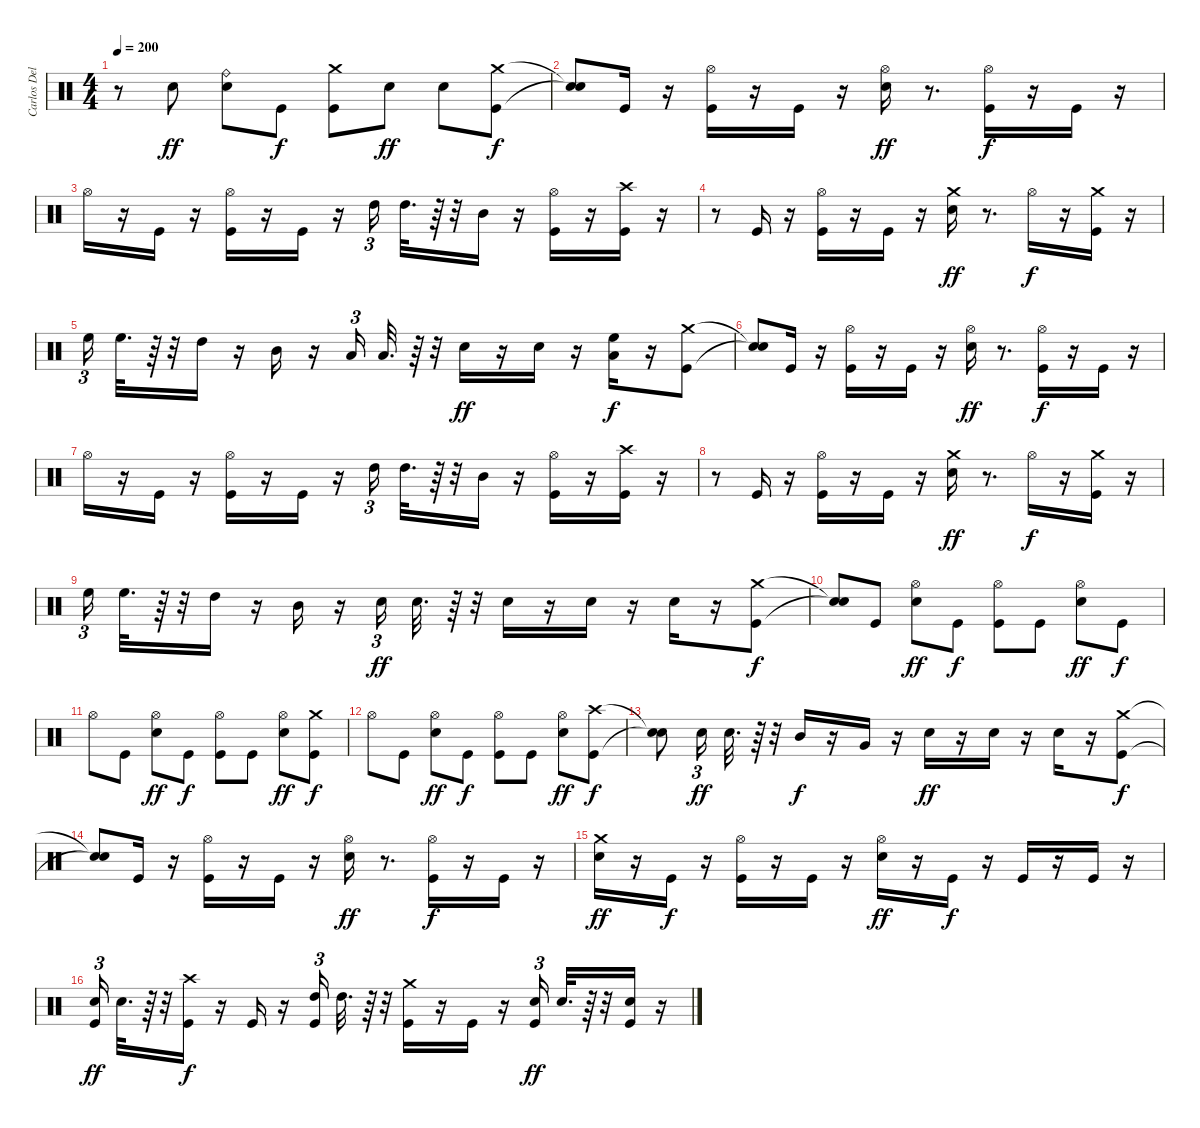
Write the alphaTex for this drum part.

\track ("Carlos Delgado" "Carlos Del") {instrument percussion}
\staff {score}
\articulation defaults
\ts (4 4)
\tempo 200
\clef neutral
\ks c
r.8{dy f} "Electric Snare (hit)".8{dy ff} ("Ride (bell)" "Electric Snare (hit)").8 "Kick (hit)".8{dy f} ("Crash medium (hit)" "Kick (hit)").8 "Electric Snare (hit)".8{dy ff} "Electric Snare (hit)".8 ("Crash medium (hit)" "Kick (hit)").8{dy f} |
("Snare (hit)"{t} "Snare (hit)"{t}).8 "Kick (hit)".16 r.16 ("Hi-Hat (open)" "Kick (hit)").16 r.16 "Kick (hit)".16 r.16 ("Hi-Hat (open)" "Electric Snare (hit)").16{dy ff} r.8{d} ("Kick (hit)" "Hi-Hat (open)").16{dy f} r.16 "Kick (hit)".16 r.16 |
"Hi-Hat (open)".16 r.16 "Kick (hit)".16 r.16 ("Hi-Hat (open)" "Kick (hit)").16 r.16 "Kick (hit)".16 r.16 "High Tom (hit)".16{tu (3 2)} "High Tom (hit)".32{d} r.64 r.32 "Mid Tom (hit)".16 r.16 ("Kick (hit)" "Hi-Hat (open)").16 r.16 ("Kick (hit)" "Crash high (hit)").16 r.16 |
r.8 "Kick (hit)".16 r.16 ("Hi-Hat (open)" "Kick (hit)").16 r.16 "Kick (hit)".16 r.16 ("Electric Snare (hit)" "Crash medium (hit)").16{dy ff} r.8{d} "Hi-Hat (open)".16{dy f} r.16 ("Kick (hit)" "Crash medium (hit)").16 r.16 |
"High Floor Tom (hit)".16{tu (3 2)} "High Floor Tom (hit)".32{d} r.64 r.32 "High Tom (hit)".16 r.16 "Mid Tom (hit)".16 r.16 "Low Tom (hit)".16{tu (3 2)} "Low Tom (hit)".32{d} r.64 r.32 "Electric Snare (hit)".16{dy ff} r.16 "Electric Snare (hit)".16 r.16 ("High Floor Tom (hit)" "Low Tom (hit)").16{dy f} r.16 ("Crash medium (hit)" "Kick (hit)").8 |
("Snare (hit)"{t} "Snare (hit)"{t}).8 "Kick (hit)".16 r.16 ("Kick (hit)" "Hi-Hat (open)").16 r.16 "Kick (hit)".16 r.16 ("Hi-Hat (open)" "Electric Snare (hit)").16{dy ff} r.8{d} ("Kick (hit)" "Hi-Hat (open)").16{dy f} r.16 "Kick (hit)".16 r.16 |
"Hi-Hat (open)".16 r.16 "Kick (hit)".16 r.16 ("Kick (hit)" "Hi-Hat (open)").16 r.16 "Kick (hit)".16 r.16 "High Tom (hit)".16{tu (3 2)} "High Tom (hit)".32{d} r.64 r.32 "Mid Tom (hit)".16 r.16 ("Kick (hit)" "Hi-Hat (open)").16 r.16 ("Crash high (hit)" "Kick (hit)").16 r.16 |
r.8 "Kick (hit)".16 r.16 ("Kick (hit)" "Hi-Hat (open)").16 r.16 "Kick (hit)".16 r.16 ("Electric Snare (hit)" "Crash medium (hit)").16{dy ff} r.8{d} "Hi-Hat (open)".16{dy f} r.16 ("Crash medium (hit)" "Kick (hit)").16 r.16 |
"High Floor Tom (hit)".16{tu (3 2)} "High Floor Tom (hit)".32{d} r.64 r.32 "High Tom (hit)".16 r.16 "Mid Tom (hit)".16 r.16 "Electric Snare (hit)".16{tu (3 2) dy ff} "Electric Snare (hit)".32{d} r.64 r.32 "Electric Snare (hit)".16 r.16 "Electric Snare (hit)".16 r.16 "Electric Snare (hit)".16 r.16 ("Crash medium (hit)" "Kick (hit)").8{dy f} |
("Snare (hit)"{t} "Snare (hit)"{t}).8 "Kick (hit)".8 ("Hi-Hat (open)" "Electric Snare (hit)").8{dy ff} "Kick (hit)".8{dy f} ("Hi-Hat (open)" "Kick (hit)").8 "Kick (hit)".8 ("Hi-Hat (open)" "Electric Snare (hit)").8{dy ff} "Kick (hit)".8{dy f} |
"Hi-Hat (open)".8 "Kick (hit)".8 ("Electric Snare (hit)" "Hi-Hat (open)").8{dy ff} "Kick (hit)".8{dy f} ("Hi-Hat (open)" "Kick (hit)").8 "Kick (hit)".8 ("Electric Snare (hit)" "Hi-Hat (open)").8{dy ff} ("Crash medium (hit)" "Kick (hit)").8{dy f} |
"Hi-Hat (open)".8 "Kick (hit)".8 ("Electric Snare (hit)" "Hi-Hat (open)").8{dy ff} "Kick (hit)".8{dy f} ("Hi-Hat (open)" "Kick (hit)").8 "Kick (hit)".8 ("Electric Snare (hit)" "Hi-Hat (open)").8{dy ff} ("Crash high (hit)" "Kick (hit)").8{dy f} |
("Snare (hit)"{t} "Snare (hit)"{t}).8 "Electric Snare (hit)".16{tu (3 2) dy ff} "Electric Snare (hit)".32{d} r.64 r.32 "Mid Tom (hit)".16{dy f} r.16 "Very Low Tom (hit)".16 r.16 "Electric Snare (hit)".16{dy ff} r.16 "Electric Snare (hit)".16 r.16 "Electric Snare (hit)".16 r.16 ("Kick (hit)" "Crash medium (hit)").8{dy f} |
("Snare (hit)"{t} "Snare (hit)"{t}).8 "Kick (hit)".16 r.16 ("Kick (hit)" "Hi-Hat (open)").16 r.16 "Kick (hit)".16 r.16 ("Electric Snare (hit)" "Hi-Hat (open)").16{dy ff} r.8{d} ("Hi-Hat (open)" "Kick (hit)").16{dy f} r.16 "Kick (hit)".16 r.16 |
("Crash medium (hit)" "Electric Snare (hit)").16{dy ff} r.16 "Kick (hit)".16{dy f} r.16 ("Kick (hit)" "Hi-Hat (open)").16 r.16 "Kick (hit)".16 r.16 ("Hi-Hat (open)" "Electric Snare (hit)").16{dy ff} r.16 "Kick (hit)".16{dy f} r.16 "Kick (hit)".16 r.16 "Kick (hit)".16 r.16 |
("Kick (hit)" "Electric Snare (hit)").16{tu (3 2) dy ff} "Electric Snare (hit)".32{d} r.64 r.32 ("Kick (hit)" "Crash high (hit)").16{dy f} r.16 "Kick (hit)".16 r.16 ("High Tom (hit)" "Kick (hit)").16{tu (3 2)} "High Tom (hit)".32{d} r.64 r.32 ("Kick (hit)" "Crash medium (hit)").16 r.16 "Kick (hit)".16 r.16 ("Kick (hit)" "Electric Snare (hit)").16{tu (3 2) dy ff} "Electric Snare (hit)".32{d} r.64 r.32 ("Electric Snare (hit)" "Kick (hit)").16 r.16
